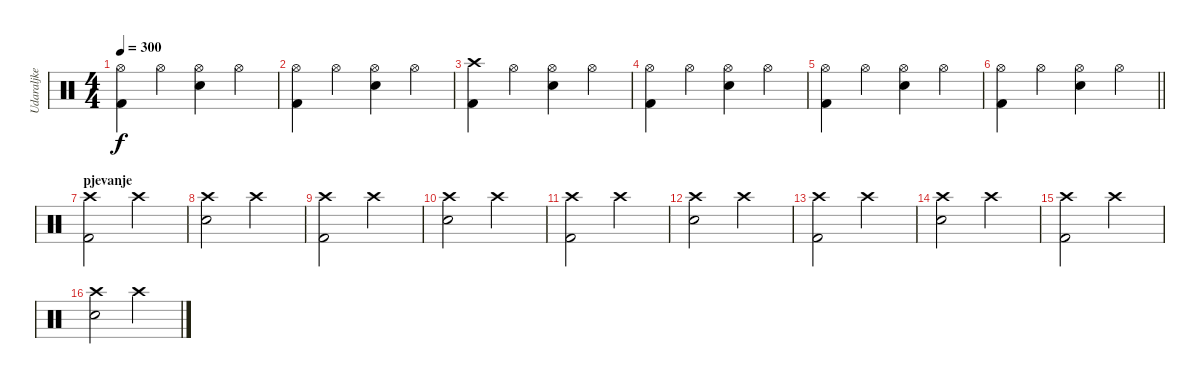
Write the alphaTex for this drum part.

\track ("Udaraljke" "Udaraljke") {instrument percussion}
\staff {score}
\articulation defaults
\ts (4 4)
\tempo 300
\clef neutral
\ks c
("Hi-Hat (open)" "Kick (hit) 2").4{dy f} "Hi-Hat (open)".4 ("Hi-Hat (open)" "Electric Snare (hit)").4 "Hi-Hat (open)".4 |
("Hi-Hat (open)" "Kick (hit) 2").4 "Hi-Hat (open)".4 ("Hi-Hat (open)" "Electric Snare (hit)").4 "Hi-Hat (open)".4 |
("Crash high (hit)" "Kick (hit) 2").4 "Hi-Hat (open)".4 ("Hi-Hat (open)" "Electric Snare (hit)").4 "Hi-Hat (open)".4 |
("Hi-Hat (open)" "Kick (hit) 2").4 "Hi-Hat (open)".4 ("Hi-Hat (open)" "Electric Snare (hit)").4 "Hi-Hat (open)".4 |
("Hi-Hat (open)" "Kick (hit) 2").4 "Hi-Hat (open)".4 ("Hi-Hat (open)" "Electric Snare (hit)").4 "Hi-Hat (open)".4 |
\barLineRight lightlight
("Hi-Hat (open)" "Kick (hit) 2").4 "Hi-Hat (open)".4 ("Hi-Hat (open)" "Electric Snare (hit)").4 "Hi-Hat (open)".4 |
\section ("" "pjevanje")
("Crash high (hit)" "Kick (hit) 2").2 "Crash high (hit)".2 |
("Crash high (hit)" "Electric Snare (hit)").2 "Crash high (hit)".2 |
("Crash high (hit)" "Kick (hit) 2").2 "Crash high (hit)".2 |
("Crash high (hit)" "Electric Snare (hit)").2 "Crash high (hit)".2 |
("Crash high (hit)" "Kick (hit) 2").2 "Crash high (hit)".2 |
("Crash high (hit)" "Electric Snare (hit)").2 "Crash high (hit)".2 |
("Crash high (hit)" "Kick (hit) 2").2 "Crash high (hit)".2 |
("Crash high (hit)" "Electric Snare (hit)").2 "Crash high (hit)".2 |
("Crash high (hit)" "Kick (hit) 2").2 "Crash high (hit)".2 |
("Crash high (hit)" "Electric Snare (hit)").2 "Crash high (hit)".2
